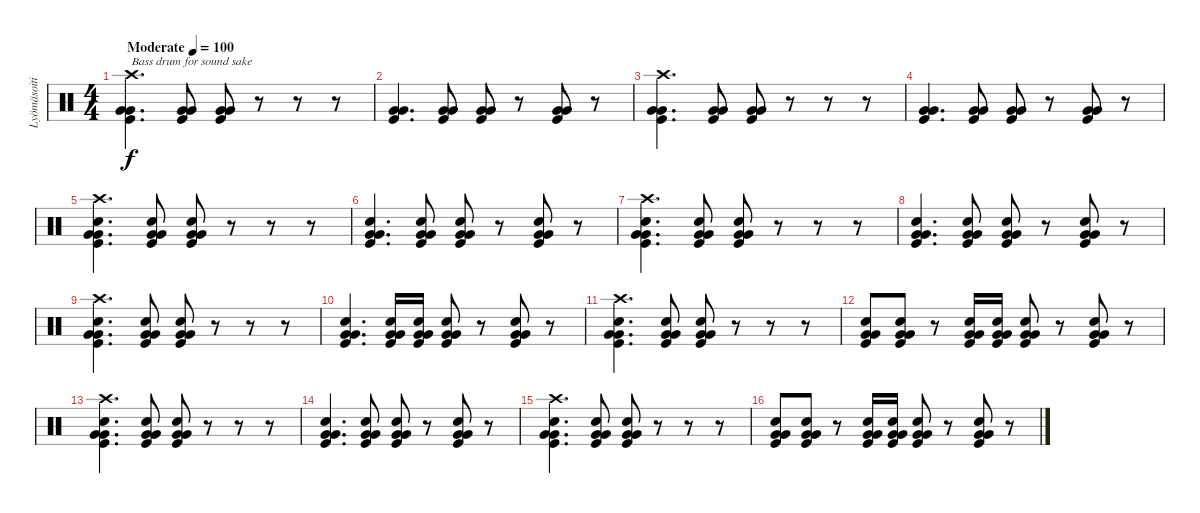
\track ("Lyömäsoitin" "Lyömäsoiti") {instrument percussion}
\staff {score}
\articulation defaults
\ts (4 4)
\tempo (100 "Moderate")
\clef neutral
\ks c
("Crash high (hit)" "Very Low Tom (hit)" "Very Low Tom (hit)" "Kick (hit)").4{d txt "Bass drum for sound sake" dy f} ("Very Low Tom (hit)" "Very Low Tom (hit)" "Kick (hit)").8 ("Very Low Tom (hit)" "Very Low Tom (hit)" "Kick (hit)").8 r.8 r.8 r.8 |
("Very Low Tom (hit)" "Very Low Tom (hit)" "Kick (hit)").4{d} ("Very Low Tom (hit)" "Very Low Tom (hit)" "Kick (hit)").8 ("Very Low Tom (hit)" "Very Low Tom (hit)" "Kick (hit)").8 r.8 ("Very Low Tom (hit)" "Very Low Tom (hit)" "Kick (hit)").8 r.8 |
("Crash high (hit)" "Very Low Tom (hit)" "Very Low Tom (hit)" "Kick (hit)").4{d} ("Very Low Tom (hit)" "Very Low Tom (hit)" "Kick (hit)").8 ("Very Low Tom (hit)" "Very Low Tom (hit)" "Kick (hit)").8 r.8 r.8 r.8 |
("Very Low Tom (hit)" "Very Low Tom (hit)" "Kick (hit)").4{d} ("Very Low Tom (hit)" "Very Low Tom (hit)" "Kick (hit)").8 ("Very Low Tom (hit)" "Very Low Tom (hit)" "Kick (hit)").8 r.8 ("Very Low Tom (hit)" "Very Low Tom (hit)" "Kick (hit)").8 r.8 |
("Crash high (hit)" "Snare (hit) 2" "Very Low Tom (hit)" "Very Low Tom (hit)" "Kick (hit)").4{d} ("Snare (hit) 2" "Very Low Tom (hit)" "Very Low Tom (hit)" "Kick (hit)").8 ("Snare (hit) 2" "Very Low Tom (hit)" "Very Low Tom (hit)" "Kick (hit)").8 r.8 r.8 r.8 |
("Snare (hit) 2" "Very Low Tom (hit)" "Very Low Tom (hit)" "Kick (hit)").4{d} ("Snare (hit) 2" "Very Low Tom (hit)" "Very Low Tom (hit)" "Kick (hit)").8 ("Snare (hit) 2" "Very Low Tom (hit)" "Very Low Tom (hit)" "Kick (hit)").8 r.8 ("Snare (hit) 2" "Very Low Tom (hit)" "Very Low Tom (hit)" "Kick (hit)").8 r.8 |
("Crash high (hit)" "Snare (hit) 2" "Very Low Tom (hit)" "Very Low Tom (hit)" "Kick (hit)").4{d} ("Snare (hit) 2" "Very Low Tom (hit)" "Very Low Tom (hit)" "Kick (hit)").8 ("Snare (hit) 2" "Very Low Tom (hit)" "Very Low Tom (hit)" "Kick (hit)").8 r.8 r.8 r.8 |
("Snare (hit) 2" "Very Low Tom (hit)" "Very Low Tom (hit)" "Kick (hit)").4{d} ("Snare (hit) 2" "Very Low Tom (hit)" "Very Low Tom (hit)" "Kick (hit)").8 ("Snare (hit) 2" "Very Low Tom (hit)" "Very Low Tom (hit)" "Kick (hit)").8 r.8 ("Snare (hit) 2" "Very Low Tom (hit)" "Very Low Tom (hit)" "Kick (hit)").8 r.8 |
("Crash high (hit)" "Snare (hit) 2" "Very Low Tom (hit)" "Very Low Tom (hit)" "Kick (hit)").4{d} ("Snare (hit) 2" "Very Low Tom (hit)" "Very Low Tom (hit)" "Kick (hit)").8 ("Snare (hit) 2" "Very Low Tom (hit)" "Very Low Tom (hit)" "Kick (hit)").8 r.8 r.8 r.8 |
("Snare (hit) 2" "Very Low Tom (hit)" "Very Low Tom (hit)" "Kick (hit)").4{d} ("Snare (hit) 2" "Very Low Tom (hit)" "Very Low Tom (hit)" "Kick (hit)").16 ("Snare (hit) 2" "Very Low Tom (hit)" "Very Low Tom (hit)" "Kick (hit)").16 ("Snare (hit) 2" "Very Low Tom (hit)" "Very Low Tom (hit)" "Kick (hit)").8 r.8 ("Snare (hit) 2" "Very Low Tom (hit)" "Very Low Tom (hit)" "Kick (hit)").8 r.8 |
("Crash high (hit)" "Snare (hit) 2" "Very Low Tom (hit)" "Very Low Tom (hit)" "Kick (hit)").4{d} ("Snare (hit) 2" "Very Low Tom (hit)" "Very Low Tom (hit)" "Kick (hit)").8 ("Snare (hit) 2" "Very Low Tom (hit)" "Very Low Tom (hit)" "Kick (hit)").8 r.8 r.8 r.8 |
("Snare (hit) 2" "Very Low Tom (hit)" "Very Low Tom (hit)" "Kick (hit)").8 ("Snare (hit) 2" "Very Low Tom (hit)" "Very Low Tom (hit)" "Kick (hit)").8 r.8 ("Snare (hit) 2" "Very Low Tom (hit)" "Very Low Tom (hit)" "Kick (hit)").16 ("Snare (hit) 2" "Very Low Tom (hit)" "Very Low Tom (hit)" "Kick (hit)").16 ("Snare (hit) 2" "Very Low Tom (hit)" "Very Low Tom (hit)" "Kick (hit)").8 r.8 ("Snare (hit) 2" "Very Low Tom (hit)" "Very Low Tom (hit)" "Kick (hit)").8 r.8 |
("Crash high (hit)" "Snare (hit) 2" "Very Low Tom (hit)" "Very Low Tom (hit)" "Kick (hit)").4{d} ("Snare (hit) 2" "Very Low Tom (hit)" "Very Low Tom (hit)" "Kick (hit)").8 ("Snare (hit) 2" "Very Low Tom (hit)" "Very Low Tom (hit)" "Kick (hit)").8 r.8 r.8 r.8 |
("Snare (hit) 2" "Very Low Tom (hit)" "Very Low Tom (hit)" "Kick (hit)").4{d} ("Snare (hit) 2" "Very Low Tom (hit)" "Very Low Tom (hit)" "Kick (hit)").8 ("Snare (hit) 2" "Very Low Tom (hit)" "Very Low Tom (hit)" "Kick (hit)").8 r.8 ("Snare (hit) 2" "Very Low Tom (hit)" "Very Low Tom (hit)" "Kick (hit)").8 r.8 |
("Crash high (hit)" "Snare (hit) 2" "Very Low Tom (hit)" "Very Low Tom (hit)" "Kick (hit)").4{d} ("Snare (hit) 2" "Very Low Tom (hit)" "Very Low Tom (hit)" "Kick (hit)").8 ("Snare (hit) 2" "Very Low Tom (hit)" "Very Low Tom (hit)" "Kick (hit)").8 r.8 r.8 r.8 |
("Snare (hit) 2" "Very Low Tom (hit)" "Very Low Tom (hit)" "Kick (hit)").8 ("Snare (hit) 2" "Very Low Tom (hit)" "Very Low Tom (hit)" "Kick (hit)").8 r.8 ("Snare (hit) 2" "Very Low Tom (hit)" "Very Low Tom (hit)" "Kick (hit)").16 ("Snare (hit) 2" "Very Low Tom (hit)" "Very Low Tom (hit)" "Kick (hit)").16 ("Snare (hit) 2" "Very Low Tom (hit)" "Very Low Tom (hit)" "Kick (hit)").8 r.8 ("Snare (hit) 2" "Very Low Tom (hit)" "Very Low Tom (hit)" "Kick (hit)").8 r.8
